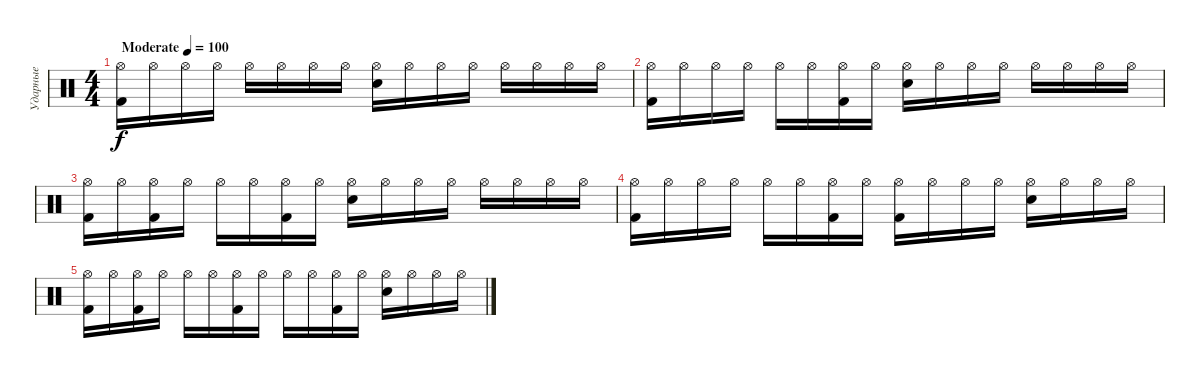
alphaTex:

\track ("Ударные" "Ударные") {instrument percussion}
\staff {score}
\articulation defaults
\ts (4 4)
\tempo (100 "Moderate")
\clef neutral
\ks c
("Hi-Hat (open)" "Kick (hit) 2").16{dy f} "Hi-Hat (open)".16 "Hi-Hat (open)".16 "Hi-Hat (open)".16 "Hi-Hat (open)".16 "Hi-Hat (open)".16 "Hi-Hat (open)".16 "Hi-Hat (open)".16 ("Hi-Hat (open)" "Electric Snare (hit)").16 "Hi-Hat (open)".16 "Hi-Hat (open)".16 "Hi-Hat (open)".16 "Hi-Hat (open)".16 "Hi-Hat (open)".16 "Hi-Hat (open)".16 "Hi-Hat (open)".16 |
("Hi-Hat (open)" "Kick (hit) 2").16 "Hi-Hat (open)".16 "Hi-Hat (open)".16 "Hi-Hat (open)".16 "Hi-Hat (open)".16 "Hi-Hat (open)".16 ("Hi-Hat (open)" "Kick (hit) 2").16 "Hi-Hat (open)".16 ("Hi-Hat (open)" "Electric Snare (hit)").16 "Hi-Hat (open)".16 "Hi-Hat (open)".16 "Hi-Hat (open)".16 "Hi-Hat (open)".16 "Hi-Hat (open)".16 "Hi-Hat (open)".16 "Hi-Hat (open)".16 |
("Hi-Hat (open)" "Kick (hit) 2").16 "Hi-Hat (open)".16 ("Hi-Hat (open)" "Kick (hit) 2").16 "Hi-Hat (open)".16 "Hi-Hat (open)".16 "Hi-Hat (open)".16 ("Hi-Hat (open)" "Kick (hit) 2").16 "Hi-Hat (open)".16 ("Hi-Hat (open)" "Electric Snare (hit)").16 "Hi-Hat (open)".16 "Hi-Hat (open)".16 "Hi-Hat (open)".16 "Hi-Hat (open)".16 "Hi-Hat (open)".16 "Hi-Hat (open)".16 "Hi-Hat (open)".16 |
("Hi-Hat (open)" "Kick (hit) 2").16 "Hi-Hat (open)".16 "Hi-Hat (open)".16 "Hi-Hat (open)".16 "Hi-Hat (open)".16 "Hi-Hat (open)".16 ("Hi-Hat (open)" "Kick (hit) 2").16 "Hi-Hat (open)".16 ("Hi-Hat (open)" "Kick (hit) 2").16 "Hi-Hat (open)".16 "Hi-Hat (open)".16 "Hi-Hat (open)".16 ("Hi-Hat (open)" "Electric Snare (hit)").16 "Hi-Hat (open)".16 "Hi-Hat (open)".16 "Hi-Hat (open)".16 |
("Hi-Hat (open)" "Kick (hit) 2").16 "Hi-Hat (open)".16 ("Hi-Hat (open)" "Kick (hit) 2").16 "Hi-Hat (open)".16 "Hi-Hat (open)".16 "Hi-Hat (open)".16 ("Hi-Hat (open)" "Kick (hit) 2").16 "Hi-Hat (open)".16 "Hi-Hat (open)".16 "Hi-Hat (open)".16 ("Hi-Hat (open)" "Kick (hit) 2").16 "Hi-Hat (open)".16 ("Hi-Hat (open)" "Electric Snare (hit)").16 "Hi-Hat (open)".16 "Hi-Hat (open)".16 "Hi-Hat (open)".16
